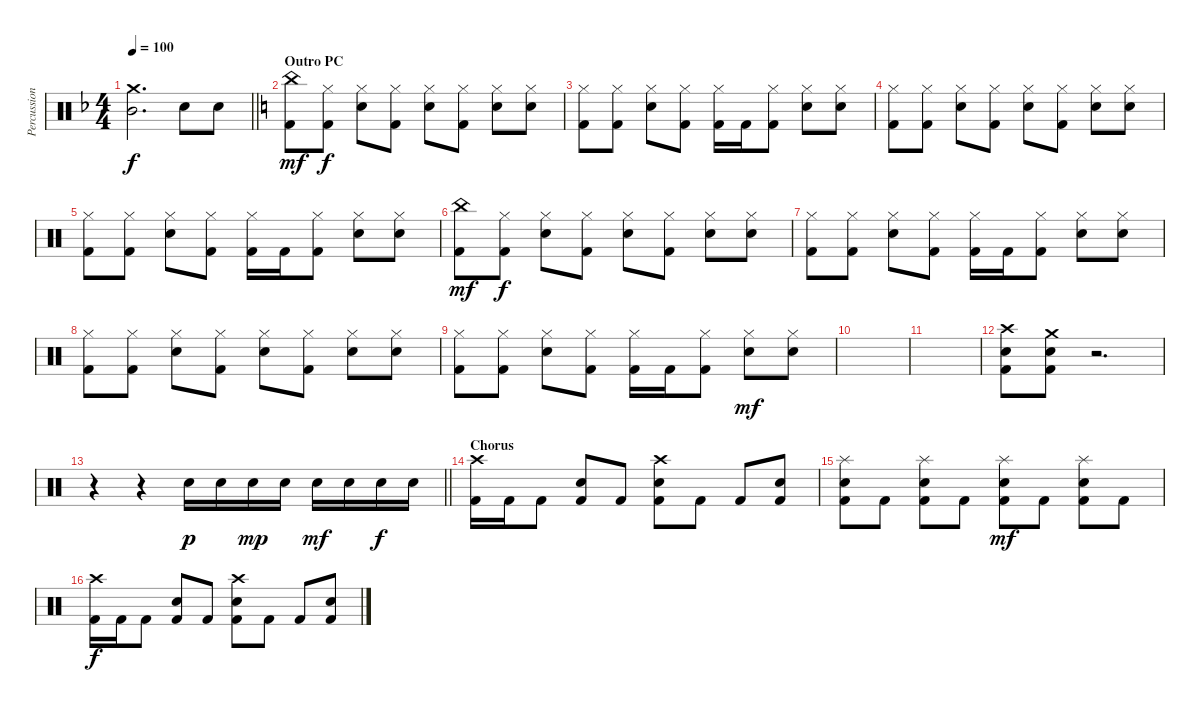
\track ("Percussion" "Percussion") {instrument percussion}
\staff {score}
\articulation defaults
\ts (4 4)
\tempo 100
\clef neutral
\barLineRight lightlight
\ks dminor
("Mid Tom (hit)" "Crash medium (hit)").2{d dy f} "Snare (hit) 2".8 "Snare (hit) 2".8 |
\section ("" "Outro PC")
\ks c
("China (hit)" "Kick (hit) 2").8{dy mf} ("Hi-Hat (closed)" "Kick (hit) 2").8{dy f} ("Hi-Hat (closed)" "Snare (hit) 2").8 ("Hi-Hat (closed)" "Kick (hit) 2").8 ("Hi-Hat (closed)" "Snare (hit) 2").8 ("Hi-Hat (closed)" "Kick (hit) 2").8 ("Hi-Hat (closed)" "Snare (hit) 2").8 ("Hi-Hat (closed)" "Snare (hit) 2").8 |
("Hi-Hat (closed)" "Kick (hit) 2").8 ("Hi-Hat (closed)" "Kick (hit) 2").8 ("Hi-Hat (closed)" "Snare (hit) 2").8 ("Hi-Hat (closed)" "Kick (hit) 2").8 ("Hi-Hat (closed)" "Kick (hit) 2").16 "Kick (hit) 2".16 ("Hi-Hat (closed)" "Kick (hit) 2").8 ("Hi-Hat (closed)" "Snare (hit) 2").8 ("Hi-Hat (closed)" "Snare (hit) 2").8 |
("Hi-Hat (closed)" "Kick (hit) 2").8 ("Hi-Hat (closed)" "Kick (hit) 2").8 ("Hi-Hat (closed)" "Snare (hit) 2").8 ("Hi-Hat (closed)" "Kick (hit) 2").8 ("Hi-Hat (closed)" "Snare (hit) 2").8 ("Hi-Hat (closed)" "Kick (hit) 2").8 ("Hi-Hat (closed)" "Snare (hit) 2").8 ("Hi-Hat (closed)" "Snare (hit) 2").8 |
("Hi-Hat (closed)" "Kick (hit) 2").8 ("Hi-Hat (closed)" "Kick (hit) 2").8 ("Hi-Hat (closed)" "Snare (hit) 2").8 ("Hi-Hat (closed)" "Kick (hit) 2").8 ("Hi-Hat (closed)" "Kick (hit) 2").16 "Kick (hit) 2".16 ("Hi-Hat (closed)" "Kick (hit) 2").8 ("Hi-Hat (closed)" "Snare (hit) 2").8 ("Hi-Hat (closed)" "Snare (hit) 2").8 |
("China (hit)" "Kick (hit) 2").8{dy mf} ("Hi-Hat (closed)" "Kick (hit) 2").8{dy f} ("Hi-Hat (closed)" "Snare (hit) 2").8 ("Hi-Hat (closed)" "Kick (hit) 2").8 ("Hi-Hat (closed)" "Snare (hit) 2").8 ("Hi-Hat (closed)" "Kick (hit) 2").8 ("Hi-Hat (closed)" "Snare (hit) 2").8 ("Hi-Hat (closed)" "Snare (hit) 2").8 |
("Hi-Hat (closed)" "Kick (hit) 2").8 ("Hi-Hat (closed)" "Kick (hit) 2").8 ("Hi-Hat (closed)" "Snare (hit) 2").8 ("Hi-Hat (closed)" "Kick (hit) 2").8 ("Hi-Hat (closed)" "Kick (hit) 2").16 "Kick (hit) 2".16 ("Hi-Hat (closed)" "Kick (hit) 2").8 ("Hi-Hat (closed)" "Snare (hit) 2").8 ("Hi-Hat (closed)" "Snare (hit) 2").8 |
("Hi-Hat (closed)" "Kick (hit) 2").8 ("Hi-Hat (closed)" "Kick (hit) 2").8 ("Hi-Hat (closed)" "Snare (hit) 2").8 ("Hi-Hat (closed)" "Kick (hit) 2").8 ("Hi-Hat (closed)" "Snare (hit) 2").8 ("Hi-Hat (closed)" "Kick (hit) 2").8 ("Hi-Hat (closed)" "Snare (hit) 2").8 ("Hi-Hat (closed)" "Snare (hit) 2").8 |
("Hi-Hat (closed)" "Kick (hit) 2").8 ("Hi-Hat (closed)" "Kick (hit) 2").8 ("Hi-Hat (closed)" "Snare (hit) 2").8 ("Hi-Hat (closed)" "Kick (hit) 2").8 ("Hi-Hat (closed)" "Kick (hit) 2").16 "Kick (hit) 2".16 ("Hi-Hat (closed)" "Kick (hit) 2").8 ("Hi-Hat (closed)" "Snare (hit) 2").8{dy mf} ("Hi-Hat (closed)" "Snare (hit) 2").8 |
|
|
("Crash high (hit)" "Snare (hit) 2" "Kick (hit) 2").8 ("Crash medium (hit)" "Snare (hit) 2" "Kick (hit) 2").8 r.2{d} |
\barLineRight lightlight
r.4 r.4 "Snare (hit) 2".16{dy p} "Snare (hit) 2".16 "Snare (hit) 2".16{dy mp} "Snare (hit) 2".16 "Snare (hit) 2".16{dy mf} "Snare (hit) 2".16 "Snare (hit) 2".16{dy f} "Snare (hit) 2".16 |
\section ("" "Chorus")
("Crash high (hit)" "Kick (hit) 2").16 "Kick (hit) 2".16 "Kick (hit) 2".8 ("Snare (hit) 2" "Kick (hit) 2").8 "Kick (hit) 2".8 ("Crash high (hit)" "Snare (hit) 2" "Kick (hit) 2").8 "Kick (hit) 2".8 "Kick (hit) 2".8 ("Snare (hit) 2" "Kick (hit) 2").8 |
("Splash (hit)" "Snare (hit) 2" "Kick (hit) 2").8 "Kick (hit) 2".8 ("Splash (hit)" "Snare (hit) 2" "Kick (hit) 2").8 "Kick (hit) 2".8 ("Splash (hit)" "Snare (hit) 2" "Kick (hit) 2").8{dy mf} "Kick (hit) 2".8 ("Splash (hit)" "Snare (hit) 2" "Kick (hit) 2").8 "Kick (hit) 2".8 |
("Crash high (hit)" "Kick (hit) 2").16{dy f} "Kick (hit) 2".16 "Kick (hit) 2".8 ("Snare (hit) 2" "Kick (hit) 2").8 "Kick (hit) 2".8 ("Crash high (hit)" "Snare (hit) 2" "Kick (hit) 2").8 "Kick (hit) 2".8 "Kick (hit) 2".8 ("Snare (hit) 2" "Kick (hit) 2").8
